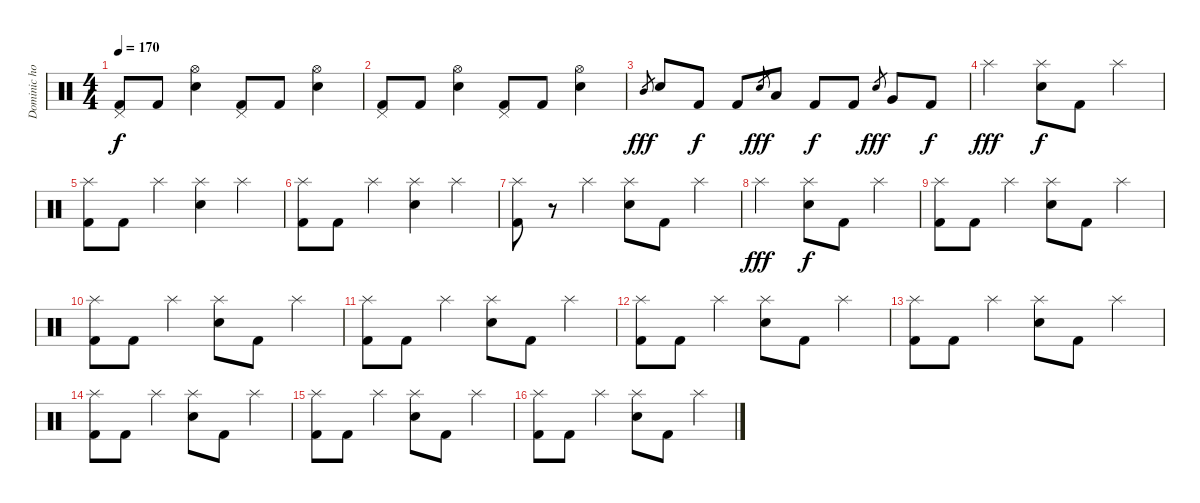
\track ("Dominic howard" "Dominic ho") {instrument percussion}
\staff {score}
\articulation defaults
\ts (4 4)
\tempo 170
\clef neutral
\ks c
("Pedal Hi-Hat (hit)" "Kick (hit) 2").8{dy f} "Kick (hit) 2".8 ("Hi-Hat (open)" "Electric Snare (hit)").4 ("Pedal Hi-Hat (hit)" "Kick (hit) 2").8 "Kick (hit) 2".8 ("Hi-Hat (open)" "Electric Snare (hit)").4 |
("Pedal Hi-Hat (hit)" "Kick (hit) 2").8 "Kick (hit) 2".8 ("Hi-Hat (open)" "Electric Snare (hit)").4 ("Pedal Hi-Hat (hit)" "Kick (hit) 2").8 "Kick (hit) 2".8 ("Hi-Hat (open)" "Electric Snare (hit)").4 |
"Mid Tom (hit)".8{gr dy fff} "Electric Snare (hit)".8 "Kick (hit) 2".8{dy f} "Kick (hit) 2".8 "Electric Snare (hit)".8{gr dy fff} "Low Tom (hit)".8 "Kick (hit) 2".8{dy f} "Kick (hit) 2".8 "Electric Snare (hit)".8{gr dy fff} "Very Low Tom (hit)".8 "Kick (hit) 2".8{dy f} |
"Splash (hit)".2{dy fff} ("Splash (hit)" "Electric Snare (hit)").8{dy f} "Kick (hit) 2".8 "Splash (hit)".4 |
("Splash (hit)" "Kick (hit) 2").8 "Kick (hit) 2".8 "Splash (hit)".4 ("Splash (hit)" "Electric Snare (hit)").4 "Splash (hit)".4 |
("Splash (hit)" "Kick (hit) 2").8 "Kick (hit) 2".8 "Splash (hit)".4 ("Splash (hit)" "Electric Snare (hit)").4 "Splash (hit)".4 |
("Splash (hit)" "Kick (hit) 2").8 r.8 "Splash (hit)".4 ("Splash (hit)" "Electric Snare (hit)").8 "Kick (hit) 2".8 "Splash (hit)".4 |
"Splash (hit)".2{dy fff} ("Splash (hit)" "Electric Snare (hit)").8{dy f} "Kick (hit) 2".8 "Splash (hit)".4 |
("Splash (hit)" "Kick (hit) 2").8 "Kick (hit) 2".8 "Splash (hit)".4 ("Splash (hit)" "Electric Snare (hit)").8 "Kick (hit) 2".8 "Splash (hit)".4 |
("Splash (hit)" "Kick (hit) 2").8 "Kick (hit) 2".8 "Splash (hit)".4 ("Splash (hit)" "Electric Snare (hit)").8 "Kick (hit) 2".8 "Splash (hit)".4 |
("Splash (hit)" "Kick (hit) 2").8 "Kick (hit) 2".8 "Splash (hit)".4 ("Splash (hit)" "Electric Snare (hit)").8 "Kick (hit) 2".8 "Splash (hit)".4 |
("Splash (hit)" "Kick (hit) 2").8 "Kick (hit) 2".8 "Splash (hit)".4 ("Splash (hit)" "Electric Snare (hit)").8 "Kick (hit) 2".8 "Splash (hit)".4 |
("Splash (hit)" "Kick (hit) 2").8 "Kick (hit) 2".8 "Splash (hit)".4 ("Splash (hit)" "Electric Snare (hit)").8 "Kick (hit) 2".8 "Splash (hit)".4 |
("Splash (hit)" "Kick (hit) 2").8 "Kick (hit) 2".8 "Splash (hit)".4 ("Splash (hit)" "Electric Snare (hit)").8 "Kick (hit) 2".8 "Splash (hit)".4 |
("Splash (hit)" "Kick (hit) 2").8 "Kick (hit) 2".8 "Splash (hit)".4 ("Splash (hit)" "Electric Snare (hit)").8 "Kick (hit) 2".8 "Splash (hit)".4 |
("Splash (hit)" "Kick (hit) 2").8 "Kick (hit) 2".8 "Splash (hit)".4 ("Splash (hit)" "Electric Snare (hit)").8 "Kick (hit) 2".8 "Splash (hit)".4
